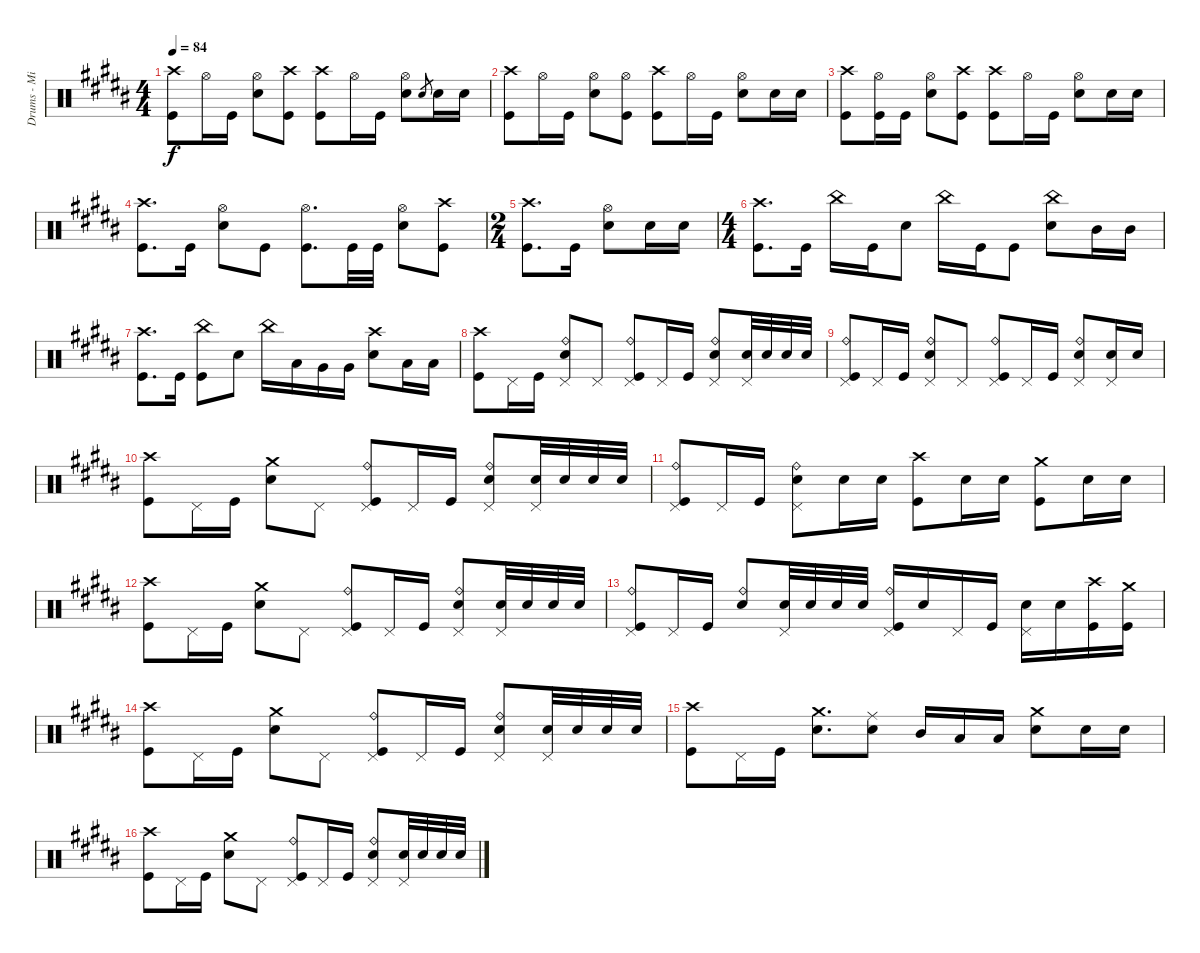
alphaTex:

\track ("Drums - Mike Portnoy" "Drums - Mi") {instrument percussion}
\staff {score}
\articulation defaults
\ts (4 4)
\tempo 84
\clef neutral
\ks b
("Crash high (hit)" "Kick (hit)").8{dy f} "Hi-Hat (open)".16 "Kick (hit)".16 ("Hi-Hat (open)" "Snare (hit) 2").8 ("Crash high (hit)" "Kick (hit)").8 ("Crash high (hit)" "Kick (hit)").8 "Hi-Hat (open)".16 "Kick (hit)".16 ("Hi-Hat (open)" "Snare (hit) 2").8 "Snare (hit) 2".8{gr} "Snare (hit) 2".16 "Snare (hit) 2".16 |
("Crash high (hit)" "Kick (hit)").8 "Hi-Hat (open)".16 "Kick (hit)".16 ("Hi-Hat (open)" "Snare (hit) 2").8 ("Hi-Hat (open)" "Kick (hit)").8 ("Crash high (hit)" "Kick (hit)").8 "Hi-Hat (open)".16 "Kick (hit)".16 ("Hi-Hat (open)" "Snare (hit) 2").8 "Snare (hit) 2".16 "Snare (hit) 2".16 |
("Crash high (hit)" "Kick (hit)").8 ("Hi-Hat (open)" "Kick (hit)").16 "Kick (hit)".16 ("Hi-Hat (open)" "Snare (hit) 2").8 ("Crash high (hit)" "Kick (hit)").8 ("Crash high (hit)" "Kick (hit)").8 "Hi-Hat (open)".16 "Kick (hit)".16 ("Hi-Hat (open)" "Snare (hit) 2").8 "Snare (hit) 2".16 "Snare (hit) 2".16 |
("Crash high (hit)" "Kick (hit)").8{d} "Kick (hit)".16 ("Hi-Hat (open)" "Snare (hit) 2").8 "Kick (hit)".8 ("Hi-Hat (open)" "Kick (hit)").8{d} "Kick (hit)".32 "Kick (hit)".32 ("Hi-Hat (open)" "Snare (hit) 2").8 ("Crash high (hit)" "Kick (hit)").8 |
\ts (2 4)
("Crash high (hit)" "Kick (hit)").8{d} "Kick (hit)".16 ("Hi-Hat (open)" "Snare (hit) 2").8 "Snare (hit) 2".16 "Snare (hit) 2".16 |
\ts (4 4)
("Crash high (hit)" "Kick (hit)").8{d} "Kick (hit)".16 "China (hit)".16 "Kick (hit)".16 "Snare (hit) 2".8 "China (hit)".16 "Kick (hit)".16 "Kick (hit)".8 ("China (hit)" "Snare (hit) 2").8 "Mid Tom (hit)".16 "Mid Tom (hit)".16 |
("Crash high (hit)" "Kick (hit)").8{d} "Kick (hit)".16 ("China (hit)" "Kick (hit)").8 "Snare (hit) 2".8 "China (hit)".16 "Low Tom (hit)".16 "Very Low Tom (hit)".16 "Very Low Tom (hit)".16 ("Crash high (hit)" "Snare (hit) 2").8 "Low Floor Tom (hit)".16 "Low Floor Tom (hit)".16 |
("Crash high (hit)" "Kick (hit)").8 "Pedal Hi-Hat (hit)".16 "Kick (hit)".16 ("Ride (bell)" "Snare (hit) 2" "Pedal Hi-Hat (hit)").8 "Pedal Hi-Hat (hit)".8 ("Ride (bell)" "Kick (hit)" "Pedal Hi-Hat (hit)").8 "Pedal Hi-Hat (hit)".16 "Kick (hit)".16 ("Ride (bell)" "Snare (hit) 2" "Pedal Hi-Hat (hit)").8 ("Snare (hit) 2" "Pedal Hi-Hat (hit)").32 "Snare (hit) 2".32 "Snare (hit) 2".32 "Snare (hit) 2".32 |
("Ride (bell)" "Kick (hit)" "Pedal Hi-Hat (hit)").8 "Pedal Hi-Hat (hit)".16 "Kick (hit)".16 ("Ride (bell)" "Snare (hit) 2" "Pedal Hi-Hat (hit)").8 "Pedal Hi-Hat (hit)".8 ("Ride (bell)" "Kick (hit)" "Pedal Hi-Hat (hit)").8 "Pedal Hi-Hat (hit)".16 "Kick (hit)".16 ("Ride (bell)" "Snare (hit) 2" "Pedal Hi-Hat (hit)").8 ("Snare (hit) 2" "Pedal Hi-Hat (hit)").16 "Snare (hit) 2".16 |
("Crash high (hit)" "Kick (hit)").8 "Pedal Hi-Hat (hit)".16 "Kick (hit)".16 ("Crash medium (hit)" "Snare (hit) 2").8 "Pedal Hi-Hat (hit)".8 ("Ride (bell)" "Kick (hit)" "Pedal Hi-Hat (hit)").8 "Pedal Hi-Hat (hit)".16 "Kick (hit)".16 ("Ride (bell)" "Snare (hit) 2" "Pedal Hi-Hat (hit)").8 ("Snare (hit) 2" "Pedal Hi-Hat (hit)").32 "Snare (hit) 2".32 "Snare (hit) 2".32 "Snare (hit) 2".32 |
("Ride (bell)" "Kick (hit)" "Pedal Hi-Hat (hit)").8 "Pedal Hi-Hat (hit)".16 "Kick (hit)".16 ("Ride (bell)" "Snare (hit) 2" "Pedal Hi-Hat (hit)").8 "Snare (hit) 2".16 "Snare (hit) 2".16 ("Crash high (hit)" "Kick (hit)").8 "Snare (hit) 2".16 "Snare (hit) 2".16 ("Crash medium (hit)" "Kick (hit)").8 "Snare (hit) 2".16 "Snare (hit) 2".16 |
("Crash high (hit)" "Kick (hit)").8 "Pedal Hi-Hat (hit)".16 "Kick (hit)".16 ("Crash medium (hit)" "Snare (hit) 2").8 "Pedal Hi-Hat (hit)".8 ("Ride (bell)" "Kick (hit)" "Pedal Hi-Hat (hit)").8 "Pedal Hi-Hat (hit)".16 "Kick (hit)".16 ("Ride (bell)" "Snare (hit) 2" "Pedal Hi-Hat (hit)").8 ("Snare (hit) 2" "Pedal Hi-Hat (hit)").32 "Snare (hit) 2".32 "Snare (hit) 2".32 "Snare (hit) 2".32 |
("Ride (bell)" "Kick (hit)" "Pedal Hi-Hat (hit)").8 "Pedal Hi-Hat (hit)".16 "Kick (hit)".16 ("Ride (bell)" "Snare (hit) 2").8 ("Snare (hit) 2" "Pedal Hi-Hat (hit)").32 "Snare (hit) 2".32 "Snare (hit) 2".32 "Snare (hit) 2".32 ("Ride (bell)" "Kick (hit)" "Pedal Hi-Hat (hit)").16 "Snare (hit) 2".16 "Pedal Hi-Hat (hit)".16 "Kick (hit)".16 ("Snare (hit) 2" "Pedal Hi-Hat (hit)").16 "Snare (hit) 2".16 ("Crash high (hit)" "Kick (hit)").16 ("Crash medium (hit)" "Kick (hit)").16 |
("Crash high (hit)" "Kick (hit)").8 "Pedal Hi-Hat (hit)".16 "Kick (hit)".16 ("Crash medium (hit)" "Snare (hit) 2").8 "Pedal Hi-Hat (hit)".8 ("Ride (bell)" "Kick (hit)" "Pedal Hi-Hat (hit)").8 "Pedal Hi-Hat (hit)".16 "Kick (hit)".16 ("Ride (bell)" "Snare (hit) 2" "Pedal Hi-Hat (hit)").8 ("Snare (hit) 2" "Pedal Hi-Hat (hit)").32 "Snare (hit) 2".32 "Snare (hit) 2".32 "Snare (hit) 2".32 |
("Crash high (hit)" "Kick (hit)").8 "Pedal Hi-Hat (hit)".16 "Kick (hit)".16 ("Crash medium (hit)" "Snare (hit) 2").8{d} ("Ride (middle)" "Snare (hit) 2").8 "Mid Tom (hit)".16 "Low Tom (hit)".16 "Low Tom (hit)".16 ("Crash medium (hit)" "Snare (hit) 2").8 "Snare (hit) 2".16 "Snare (hit) 2".16 |
("Crash high (hit)" "Kick (hit)").8 "Pedal Hi-Hat (hit)".16 "Kick (hit)".16 ("Crash medium (hit)" "Snare (hit) 2").8 "Pedal Hi-Hat (hit)".8 ("Ride (bell)" "Kick (hit)" "Pedal Hi-Hat (hit)").8 "Pedal Hi-Hat (hit)".16 "Kick (hit)".16 ("Ride (bell)" "Snare (hit) 2" "Pedal Hi-Hat (hit)").8 ("Snare (hit) 2" "Pedal Hi-Hat (hit)").32 "Snare (hit) 2".32 "Snare (hit) 2".32 "Snare (hit) 2".32
